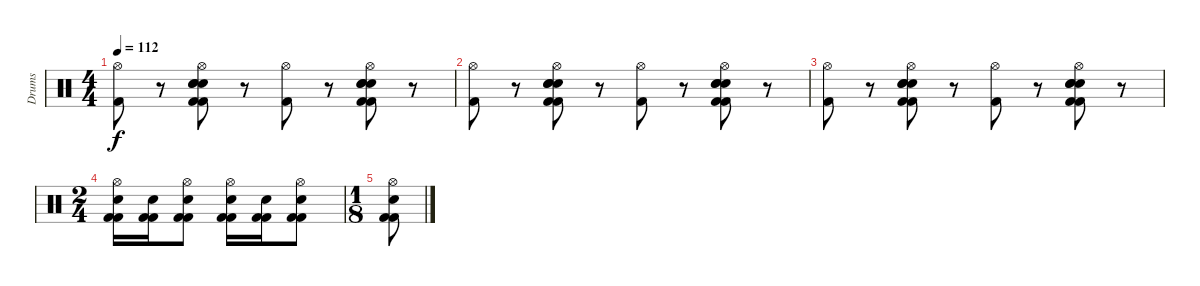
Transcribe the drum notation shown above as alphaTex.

\track ("Drums" "Drums") {instrument percussion}
\staff {score}
\articulation defaults
\ts (4 4)
\tempo 112
\clef neutral
\ks c
("Hi-Hat (open)" "Kick (hit) 2").8{dy f} r.8 ("Snare (hit) 2" "Kick (hit) 2" "Electric Snare (hit)" "Electric Snare (hit)" "Hi-Hat (open)" "Kick (hit) 2").8 r.8 ("Hi-Hat (open)" "Kick (hit) 2").8 r.8 ("Snare (hit) 2" "Kick (hit) 2" "Electric Snare (hit)" "Electric Snare (hit)" "Hi-Hat (open)" "Kick (hit) 2").8 r.8 |
("Hi-Hat (open)" "Kick (hit) 2").8 r.8 ("Snare (hit) 2" "Kick (hit) 2" "Electric Snare (hit)" "Electric Snare (hit)" "Hi-Hat (open)" "Kick (hit) 2").8 r.8 ("Hi-Hat (open)" "Kick (hit) 2").8 r.8 ("Snare (hit) 2" "Kick (hit) 2" "Electric Snare (hit)" "Electric Snare (hit)" "Hi-Hat (open)" "Kick (hit) 2").8 r.8 |
("Hi-Hat (open)" "Kick (hit) 2").8 r.8 ("Snare (hit) 2" "Kick (hit) 2" "Electric Snare (hit)" "Electric Snare (hit)" "Hi-Hat (open)" "Kick (hit) 2").8 r.8 ("Hi-Hat (open)" "Kick (hit) 2").8 r.8 ("Snare (hit) 2" "Kick (hit) 2" "Electric Snare (hit)" "Electric Snare (hit)" "Hi-Hat (open)" "Kick (hit) 2").8 r.8 |
\ts (2 4)
("Hi-Hat (open)" "Snare (hit) 2" "Kick (hit) 2" "Kick (hit) 2").16 ("Snare (hit) 2" "Kick (hit) 2" "Kick (hit) 2").16 ("Hi-Hat (open)" "Electric Snare (hit)" "Kick (hit) 2" "Kick (hit) 2").8 ("Hi-Hat (open)" "Snare (hit) 2" "Kick (hit) 2" "Kick (hit) 2").16 ("Snare (hit) 2" "Kick (hit) 2" "Kick (hit) 2").16 ("Hi-Hat (open)" "Electric Snare (hit)" "Kick (hit) 2" "Kick (hit) 2").8 |
\ts (1 8)
("Hi-Hat (open)" "Electric Snare (hit)" "Kick (hit) 2" "Kick (hit) 2").8
